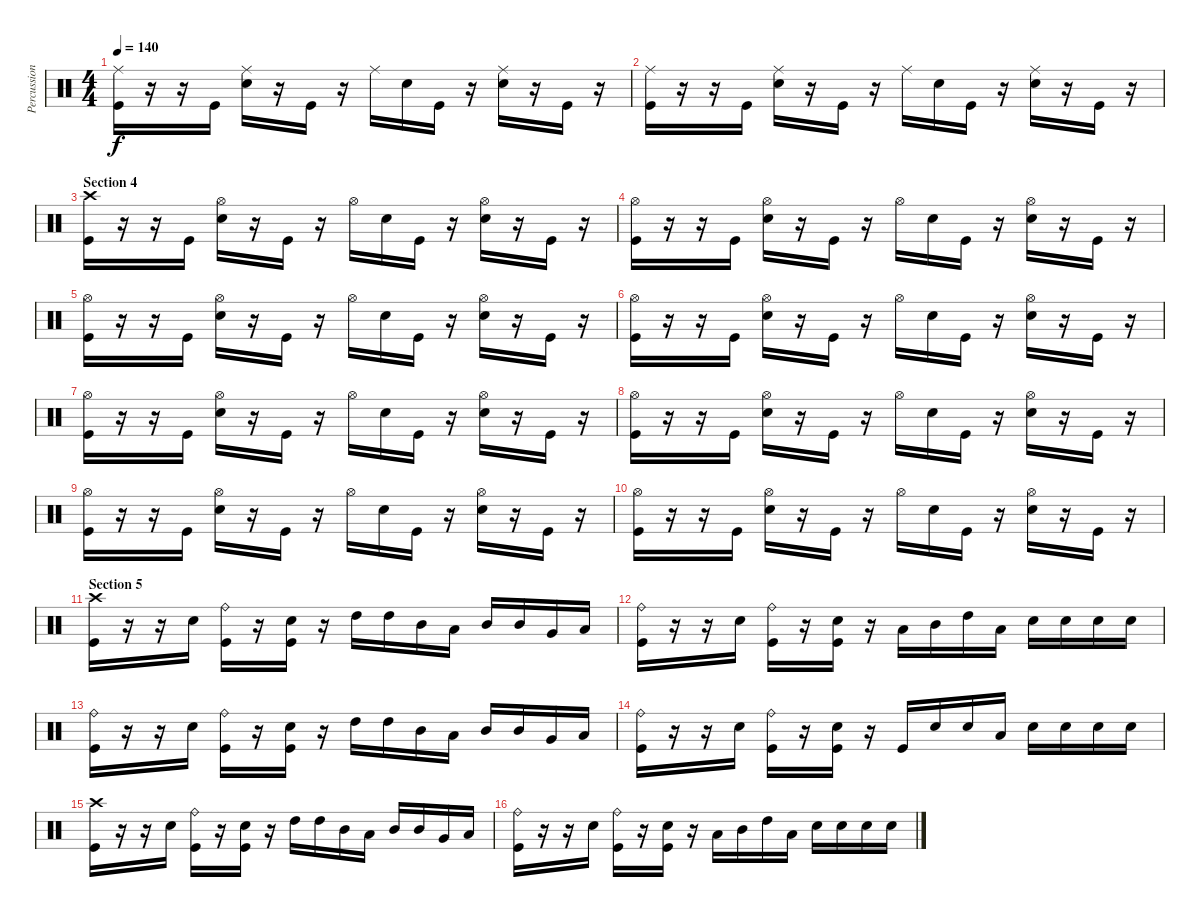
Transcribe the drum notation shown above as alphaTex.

\track ("Percussion" "Percussion") {instrument percussion}
\staff {score}
\articulation defaults
\ts (4 4)
\tempo 140
\clef neutral
\ks c
("Ride (middle)" "Kick (hit)").16{dy f} r.16 r.16 "Kick (hit)".16 ("Ride (middle)" "Electric Snare (hit)").16 r.16 "Kick (hit)".16 r.16 "Ride (middle)".16 "Electric Snare (hit)".16 "Kick (hit)".16 r.16 ("Ride (middle)" "Electric Snare (hit)").16 r.16 "Kick (hit)".16 r.16 |
("Ride (middle)" "Kick (hit)").16 r.16 r.16 "Kick (hit)".16 ("Ride (middle)" "Electric Snare (hit)").16 r.16 "Kick (hit)".16 r.16 "Ride (middle)".16 "Electric Snare (hit)".16 "Kick (hit)".16 r.16 ("Ride (middle)" "Electric Snare (hit)").16 r.16 "Kick (hit)".16 r.16 |
\section ("" "Section 4")
("Crash high (hit)" "Kick (hit)").16 r.16 r.16 "Kick (hit)".16 ("Hi-Hat (open)" "Electric Snare (hit)").16 r.16 "Kick (hit)".16 r.16 "Hi-Hat (open)".16 "Electric Snare (hit)".16 "Kick (hit)".16 r.16 ("Hi-Hat (open)" "Electric Snare (hit)").16 r.16 "Kick (hit)".16 r.16 |
("Hi-Hat (open)" "Kick (hit)").16 r.16 r.16 "Kick (hit)".16 ("Hi-Hat (open)" "Electric Snare (hit)").16 r.16 "Kick (hit)".16 r.16 "Hi-Hat (open)".16 "Electric Snare (hit)".16 "Kick (hit)".16 r.16 ("Hi-Hat (open)" "Electric Snare (hit)").16 r.16 "Kick (hit)".16 r.16 |
("Hi-Hat (open)" "Kick (hit)").16 r.16 r.16 "Kick (hit)".16 ("Hi-Hat (open)" "Electric Snare (hit)").16 r.16 "Kick (hit)".16 r.16 "Hi-Hat (open)".16 "Electric Snare (hit)".16 "Kick (hit)".16 r.16 ("Hi-Hat (open)" "Electric Snare (hit)").16 r.16 "Kick (hit)".16 r.16 |
("Hi-Hat (open)" "Kick (hit)").16 r.16 r.16 "Kick (hit)".16 ("Hi-Hat (open)" "Electric Snare (hit)").16 r.16 "Kick (hit)".16 r.16 "Hi-Hat (open)".16 "Electric Snare (hit)".16 "Kick (hit)".16 r.16 ("Hi-Hat (open)" "Electric Snare (hit)").16 r.16 "Kick (hit)".16 r.16 |
("Hi-Hat (open)" "Kick (hit)").16 r.16 r.16 "Kick (hit)".16 ("Hi-Hat (open)" "Electric Snare (hit)").16 r.16 "Kick (hit)".16 r.16 "Hi-Hat (open)".16 "Electric Snare (hit)".16 "Kick (hit)".16 r.16 ("Hi-Hat (open)" "Electric Snare (hit)").16 r.16 "Kick (hit)".16 r.16 |
("Hi-Hat (open)" "Kick (hit)").16 r.16 r.16 "Kick (hit)".16 ("Hi-Hat (open)" "Electric Snare (hit)").16 r.16 "Kick (hit)".16 r.16 "Hi-Hat (open)".16 "Electric Snare (hit)".16 "Kick (hit)".16 r.16 ("Hi-Hat (open)" "Electric Snare (hit)").16 r.16 "Kick (hit)".16 r.16 |
("Hi-Hat (open)" "Kick (hit)").16 r.16 r.16 "Kick (hit)".16 ("Hi-Hat (open)" "Electric Snare (hit)").16 r.16 "Kick (hit)".16 r.16 "Hi-Hat (open)".16 "Electric Snare (hit)".16 "Kick (hit)".16 r.16 ("Hi-Hat (open)" "Electric Snare (hit)").16 r.16 "Kick (hit)".16 r.16 |
("Hi-Hat (open)" "Kick (hit)").16 r.16 r.16 "Kick (hit)".16 ("Hi-Hat (open)" "Electric Snare (hit)").16 r.16 "Kick (hit)".16 r.16 "Hi-Hat (open)".16 "Electric Snare (hit)".16 "Kick (hit)".16 r.16 ("Hi-Hat (open)" "Electric Snare (hit)").16 r.16 "Kick (hit)".16 r.16 |
\section ("" "Section 5")
("Crash high (hit)" "Kick (hit)").16 r.16 r.16 "Electric Snare (hit)".16 ("Ride (bell)" "Kick (hit)").16 r.16 ("Electric Snare (hit)" "Kick (hit)").16 r.16 "High Tom (hit)".16 "High Tom (hit)".16 "Mid Tom (hit)".16 "Low Tom (hit)".16 "Mid Tom (hit)".16 "Mid Tom (hit)".16 "Very Low Tom (hit)".16 "Low Tom (hit)".16 |
("Ride (bell)" "Kick (hit)").16 r.16 r.16 "Electric Snare (hit)".16 ("Ride (bell)" "Kick (hit)").16 r.16 ("Electric Snare (hit)" "Kick (hit)").16 r.16 "Low Tom (hit)".16 "Mid Tom (hit)".16 "High Tom (hit)".16 "Low Tom (hit)".16 "Electric Snare (hit)".16 "Electric Snare (hit)".16 "Electric Snare (hit)".16 "Electric Snare (hit)".16 |
("Ride (bell)" "Kick (hit)").16 r.16 r.16 "Electric Snare (hit)".16 ("Ride (bell)" "Kick (hit)").16 r.16 ("Electric Snare (hit)" "Kick (hit)").16 r.16 "High Tom (hit)".16 "High Tom (hit)".16 "Mid Tom (hit)".16 "Low Tom (hit)".16 "Mid Tom (hit)".16 "Mid Tom (hit)".16 "Very Low Tom (hit)".16 "Low Tom (hit)".16 |
("Ride (bell)" "Kick (hit)").16 r.16 r.16 "Electric Snare (hit)".16 ("Ride (bell)" "Kick (hit)").16 r.16 ("Electric Snare (hit)" "Kick (hit)").16 r.16 "Kick (hit)".16 "Electric Snare (hit)".16 "Electric Snare (hit)".16 "Low Tom (hit)".16 "Electric Snare (hit)".16 "Electric Snare (hit)".16 "Electric Snare (hit)".16 "Electric Snare (hit)".16 |
("Crash high (hit)" "Kick (hit)").16 r.16 r.16 "Electric Snare (hit)".16 ("Ride (bell)" "Kick (hit)").16 r.16 ("Electric Snare (hit)" "Kick (hit)").16 r.16 "High Tom (hit)".16 "High Tom (hit)".16 "Mid Tom (hit)".16 "Low Tom (hit)".16 "Mid Tom (hit)".16 "Mid Tom (hit)".16 "Very Low Tom (hit)".16 "Low Tom (hit)".16 |
("Ride (bell)" "Kick (hit)").16 r.16 r.16 "Electric Snare (hit)".16 ("Ride (bell)" "Kick (hit)").16 r.16 ("Electric Snare (hit)" "Kick (hit)").16 r.16 "Low Tom (hit)".16 "Mid Tom (hit)".16 "High Tom (hit)".16 "Low Tom (hit)".16 "Electric Snare (hit)".16 "Electric Snare (hit)".16 "Electric Snare (hit)".16 "Electric Snare (hit)".16
